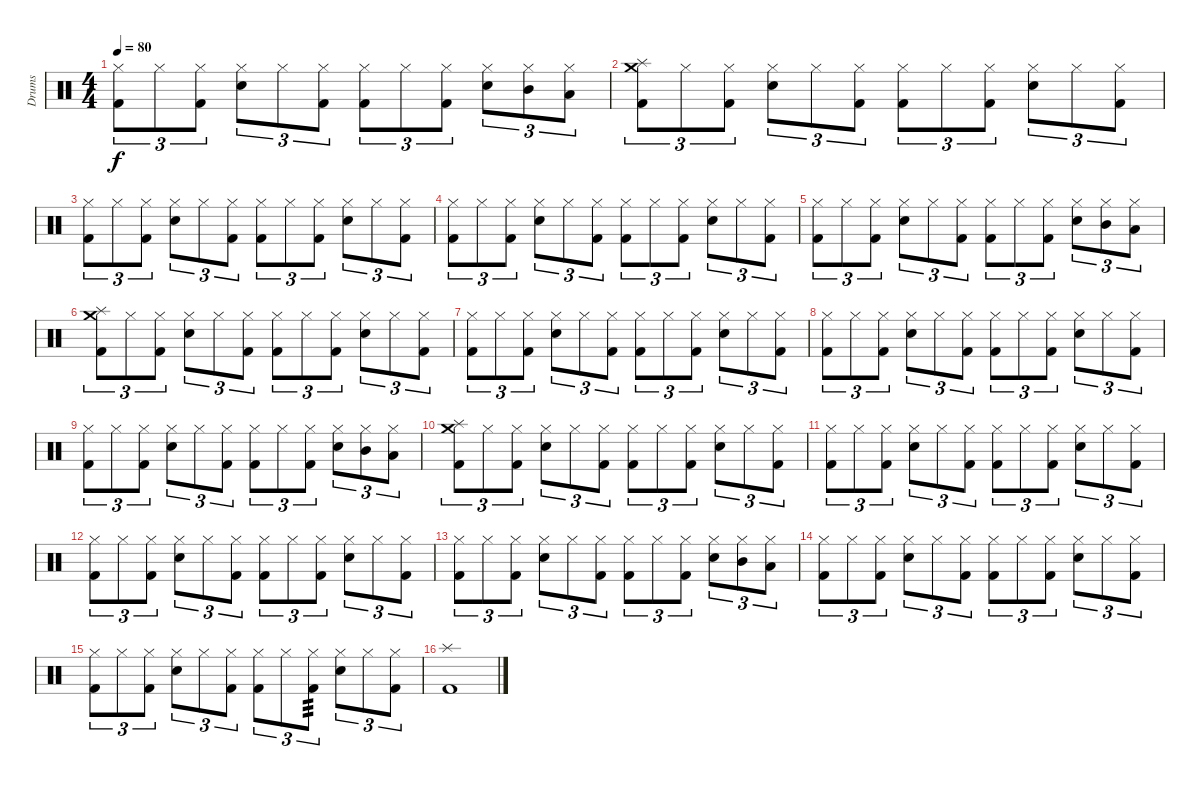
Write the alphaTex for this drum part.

\track ("Drums" "Drums") {instrument percussion}
\staff {score}
\articulation defaults
\ts (4 4)
\tempo 80
\clef neutral
\ks c
("Hi-Hat (closed)" "Kick (hit) 2").8{tu (3 2) dy f} "Hi-Hat (closed)".8{tu (3 2)} ("Hi-Hat (closed)" "Kick (hit) 2").8{tu (3 2)} ("Hi-Hat (closed)" "Snare (hit) 2").8{tu (3 2)} "Hi-Hat (closed)".8{tu (3 2)} ("Hi-Hat (closed)" "Kick (hit) 2").8{tu (3 2)} ("Hi-Hat (closed)" "Kick (hit) 2").8{tu (3 2)} "Hi-Hat (closed)".8{tu (3 2)} ("Hi-Hat (closed)" "Kick (hit) 2").8{tu (3 2)} ("Hi-Hat (closed)" "Snare (hit) 2").8{tu (3 2)} ("Hi-Hat (closed)" "Mid Tom (hit)").8{tu (3 2)} ("Hi-Hat (closed)" "Low Tom (hit)").8{tu (3 2)} |
("Crash medium (hit)" "Splash (hit)" "Kick (hit) 2").8{tu (3 2)} "Hi-Hat (closed)".8{tu (3 2)} ("Hi-Hat (closed)" "Kick (hit) 2").8{tu (3 2)} ("Hi-Hat (closed)" "Snare (hit) 2").8{tu (3 2)} "Hi-Hat (closed)".8{tu (3 2)} ("Hi-Hat (closed)" "Kick (hit) 2").8{tu (3 2)} ("Hi-Hat (closed)" "Kick (hit) 2").8{tu (3 2)} "Hi-Hat (closed)".8{tu (3 2)} ("Hi-Hat (closed)" "Kick (hit) 2").8{tu (3 2)} ("Hi-Hat (closed)" "Snare (hit) 2").8{tu (3 2)} "Hi-Hat (closed)".8{tu (3 2)} ("Hi-Hat (closed)" "Kick (hit) 2").8{tu (3 2)} |
("Hi-Hat (closed)" "Kick (hit) 2").8{tu (3 2)} "Hi-Hat (closed)".8{tu (3 2)} ("Hi-Hat (closed)" "Kick (hit) 2").8{tu (3 2)} ("Hi-Hat (closed)" "Snare (hit) 2").8{tu (3 2)} "Hi-Hat (closed)".8{tu (3 2)} ("Hi-Hat (closed)" "Kick (hit) 2").8{tu (3 2)} ("Hi-Hat (closed)" "Kick (hit) 2").8{tu (3 2)} "Hi-Hat (closed)".8{tu (3 2)} ("Hi-Hat (closed)" "Kick (hit) 2").8{tu (3 2)} ("Hi-Hat (closed)" "Snare (hit) 2").8{tu (3 2)} "Hi-Hat (closed)".8{tu (3 2)} ("Hi-Hat (closed)" "Kick (hit) 2").8{tu (3 2)} |
("Hi-Hat (closed)" "Kick (hit) 2").8{tu (3 2)} "Hi-Hat (closed)".8{tu (3 2)} ("Hi-Hat (closed)" "Kick (hit) 2").8{tu (3 2)} ("Hi-Hat (closed)" "Snare (hit) 2").8{tu (3 2)} "Hi-Hat (closed)".8{tu (3 2)} ("Hi-Hat (closed)" "Kick (hit) 2").8{tu (3 2)} ("Hi-Hat (closed)" "Kick (hit) 2").8{tu (3 2)} "Hi-Hat (closed)".8{tu (3 2)} ("Hi-Hat (closed)" "Kick (hit) 2").8{tu (3 2)} ("Hi-Hat (closed)" "Snare (hit) 2").8{tu (3 2)} "Hi-Hat (closed)".8{tu (3 2)} ("Hi-Hat (closed)" "Kick (hit) 2").8{tu (3 2)} |
("Hi-Hat (closed)" "Kick (hit) 2").8{tu (3 2)} "Hi-Hat (closed)".8{tu (3 2)} ("Hi-Hat (closed)" "Kick (hit) 2").8{tu (3 2)} ("Hi-Hat (closed)" "Snare (hit) 2").8{tu (3 2)} "Hi-Hat (closed)".8{tu (3 2)} ("Hi-Hat (closed)" "Kick (hit) 2").8{tu (3 2)} ("Hi-Hat (closed)" "Kick (hit) 2").8{tu (3 2)} "Hi-Hat (closed)".8{tu (3 2)} ("Hi-Hat (closed)" "Kick (hit) 2").8{tu (3 2)} ("Hi-Hat (closed)" "Snare (hit) 2").8{tu (3 2)} ("Hi-Hat (closed)" "Mid Tom (hit)").8{tu (3 2)} ("Hi-Hat (closed)" "Low Tom (hit)").8{tu (3 2)} |
("Crash medium (hit)" "Splash (hit)" "Kick (hit) 2").8{tu (3 2)} "Hi-Hat (closed)".8{tu (3 2)} ("Hi-Hat (closed)" "Kick (hit) 2").8{tu (3 2)} ("Hi-Hat (closed)" "Snare (hit) 2").8{tu (3 2)} "Hi-Hat (closed)".8{tu (3 2)} ("Hi-Hat (closed)" "Kick (hit) 2").8{tu (3 2)} ("Hi-Hat (closed)" "Kick (hit) 2").8{tu (3 2)} "Hi-Hat (closed)".8{tu (3 2)} ("Hi-Hat (closed)" "Kick (hit) 2").8{tu (3 2)} ("Hi-Hat (closed)" "Snare (hit) 2").8{tu (3 2)} "Hi-Hat (closed)".8{tu (3 2)} ("Hi-Hat (closed)" "Kick (hit) 2").8{tu (3 2)} |
("Hi-Hat (closed)" "Kick (hit) 2").8{tu (3 2)} "Hi-Hat (closed)".8{tu (3 2)} ("Hi-Hat (closed)" "Kick (hit) 2").8{tu (3 2)} ("Hi-Hat (closed)" "Snare (hit) 2").8{tu (3 2)} "Hi-Hat (closed)".8{tu (3 2)} ("Hi-Hat (closed)" "Kick (hit) 2").8{tu (3 2)} ("Hi-Hat (closed)" "Kick (hit) 2").8{tu (3 2)} "Hi-Hat (closed)".8{tu (3 2)} ("Hi-Hat (closed)" "Kick (hit) 2").8{tu (3 2)} ("Hi-Hat (closed)" "Snare (hit) 2").8{tu (3 2)} "Hi-Hat (closed)".8{tu (3 2)} ("Hi-Hat (closed)" "Kick (hit) 2").8{tu (3 2)} |
("Hi-Hat (closed)" "Kick (hit) 2").8{tu (3 2)} "Hi-Hat (closed)".8{tu (3 2)} ("Hi-Hat (closed)" "Kick (hit) 2").8{tu (3 2)} ("Hi-Hat (closed)" "Snare (hit) 2").8{tu (3 2)} "Hi-Hat (closed)".8{tu (3 2)} ("Hi-Hat (closed)" "Kick (hit) 2").8{tu (3 2)} ("Hi-Hat (closed)" "Kick (hit) 2").8{tu (3 2)} "Hi-Hat (closed)".8{tu (3 2)} ("Hi-Hat (closed)" "Kick (hit) 2").8{tu (3 2)} ("Hi-Hat (closed)" "Snare (hit) 2").8{tu (3 2)} "Hi-Hat (closed)".8{tu (3 2)} ("Hi-Hat (closed)" "Kick (hit) 2").8{tu (3 2)} |
("Hi-Hat (closed)" "Kick (hit) 2").8{tu (3 2)} "Hi-Hat (closed)".8{tu (3 2)} ("Hi-Hat (closed)" "Kick (hit) 2").8{tu (3 2)} ("Hi-Hat (closed)" "Snare (hit) 2").8{tu (3 2)} "Hi-Hat (closed)".8{tu (3 2)} ("Hi-Hat (closed)" "Kick (hit) 2").8{tu (3 2)} ("Hi-Hat (closed)" "Kick (hit) 2").8{tu (3 2)} "Hi-Hat (closed)".8{tu (3 2)} ("Hi-Hat (closed)" "Kick (hit) 2").8{tu (3 2)} ("Hi-Hat (closed)" "Snare (hit) 2").8{tu (3 2)} ("Hi-Hat (closed)" "Mid Tom (hit)").8{tu (3 2)} ("Hi-Hat (closed)" "Low Tom (hit)").8{tu (3 2)} |
("Crash medium (hit)" "Splash (hit)" "Kick (hit) 2").8{tu (3 2)} "Hi-Hat (closed)".8{tu (3 2)} ("Hi-Hat (closed)" "Kick (hit) 2").8{tu (3 2)} ("Hi-Hat (closed)" "Snare (hit) 2").8{tu (3 2)} "Hi-Hat (closed)".8{tu (3 2)} ("Hi-Hat (closed)" "Kick (hit) 2").8{tu (3 2)} ("Hi-Hat (closed)" "Kick (hit) 2").8{tu (3 2)} "Hi-Hat (closed)".8{tu (3 2)} ("Hi-Hat (closed)" "Kick (hit) 2").8{tu (3 2)} ("Hi-Hat (closed)" "Snare (hit) 2").8{tu (3 2)} "Hi-Hat (closed)".8{tu (3 2)} ("Hi-Hat (closed)" "Kick (hit) 2").8{tu (3 2)} |
("Hi-Hat (closed)" "Kick (hit) 2").8{tu (3 2)} "Hi-Hat (closed)".8{tu (3 2)} ("Hi-Hat (closed)" "Kick (hit) 2").8{tu (3 2)} ("Hi-Hat (closed)" "Snare (hit) 2").8{tu (3 2)} "Hi-Hat (closed)".8{tu (3 2)} ("Hi-Hat (closed)" "Kick (hit) 2").8{tu (3 2)} ("Hi-Hat (closed)" "Kick (hit) 2").8{tu (3 2)} "Hi-Hat (closed)".8{tu (3 2)} ("Hi-Hat (closed)" "Kick (hit) 2").8{tu (3 2)} ("Hi-Hat (closed)" "Snare (hit) 2").8{tu (3 2)} "Hi-Hat (closed)".8{tu (3 2)} ("Hi-Hat (closed)" "Kick (hit) 2").8{tu (3 2)} |
("Hi-Hat (closed)" "Kick (hit) 2").8{tu (3 2)} "Hi-Hat (closed)".8{tu (3 2)} ("Hi-Hat (closed)" "Kick (hit) 2").8{tu (3 2)} ("Hi-Hat (closed)" "Snare (hit) 2").8{tu (3 2)} "Hi-Hat (closed)".8{tu (3 2)} ("Hi-Hat (closed)" "Kick (hit) 2").8{tu (3 2)} ("Hi-Hat (closed)" "Kick (hit) 2").8{tu (3 2)} "Hi-Hat (closed)".8{tu (3 2)} ("Hi-Hat (closed)" "Kick (hit) 2").8{tu (3 2)} ("Hi-Hat (closed)" "Snare (hit) 2").8{tu (3 2)} "Hi-Hat (closed)".8{tu (3 2)} ("Hi-Hat (closed)" "Kick (hit) 2").8{tu (3 2)} |
("Hi-Hat (closed)" "Kick (hit) 2").8{tu (3 2)} "Hi-Hat (closed)".8{tu (3 2)} ("Hi-Hat (closed)" "Kick (hit) 2").8{tu (3 2)} ("Hi-Hat (closed)" "Snare (hit) 2").8{tu (3 2)} "Hi-Hat (closed)".8{tu (3 2)} ("Hi-Hat (closed)" "Kick (hit) 2").8{tu (3 2)} ("Hi-Hat (closed)" "Kick (hit) 2").8{tu (3 2)} "Hi-Hat (closed)".8{tu (3 2)} ("Hi-Hat (closed)" "Kick (hit) 2").8{tu (3 2)} ("Hi-Hat (closed)" "Snare (hit) 2").8{tu (3 2)} ("Hi-Hat (closed)" "Mid Tom (hit)").8{tu (3 2)} ("Hi-Hat (closed)" "Low Tom (hit)").8{tu (3 2)} |
("Hi-Hat (closed)" "Kick (hit) 2").8{tu (3 2)} "Hi-Hat (closed)".8{tu (3 2)} ("Hi-Hat (closed)" "Kick (hit) 2").8{tu (3 2)} ("Hi-Hat (closed)" "Snare (hit) 2").8{tu (3 2)} "Hi-Hat (closed)".8{tu (3 2)} ("Hi-Hat (closed)" "Kick (hit) 2").8{tu (3 2)} ("Hi-Hat (closed)" "Kick (hit) 2").8{tu (3 2)} "Hi-Hat (closed)".8{tu (3 2)} ("Hi-Hat (closed)" "Kick (hit) 2").8{tu (3 2)} ("Hi-Hat (closed)" "Snare (hit) 2").8{tu (3 2)} "Hi-Hat (closed)".8{tu (3 2)} ("Hi-Hat (closed)" "Kick (hit) 2").8{tu (3 2)} |
("Hi-Hat (closed)" "Kick (hit) 2").8{tu (3 2)} "Hi-Hat (closed)".8{tu (3 2)} ("Hi-Hat (closed)" "Kick (hit) 2").8{tu (3 2)} ("Hi-Hat (closed)" "Snare (hit) 2").8{tu (3 2)} "Hi-Hat (closed)".8{tu (3 2)} ("Hi-Hat (closed)" "Kick (hit) 2").8{tu (3 2)} ("Hi-Hat (closed)" "Kick (hit) 2").8{tu (3 2)} "Hi-Hat (closed)".8{tu (3 2)} ("Hi-Hat (closed)" "Kick (hit) 2").8{tu (3 2) tp 3} ("Hi-Hat (closed)" "Snare (hit) 2").8{tu (3 2)} "Hi-Hat (closed)".8{tu (3 2)} ("Hi-Hat (closed)" "Kick (hit) 2").8{tu (3 2)} |
("Splash (hit)" "Kick (hit) 2").1
